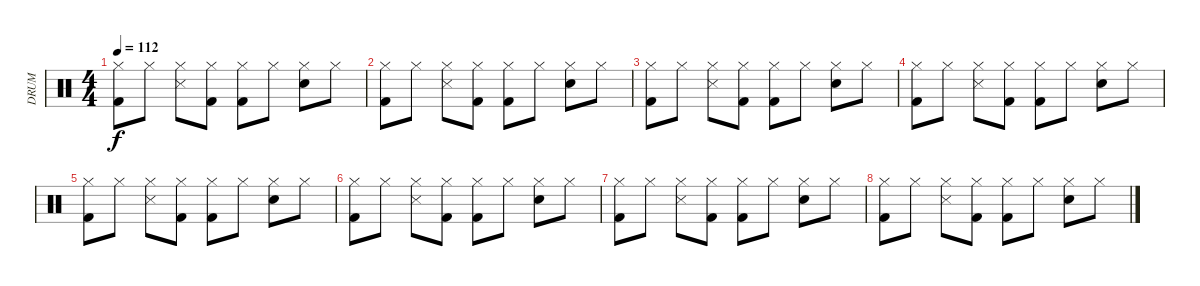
\track ("DRUM" "DRUM") {instrument percussion}
\staff {score}
\articulation defaults
\ts (4 4)
\tempo 112
\clef neutral
\ks c
("Kick (hit) 2" "Hi-Hat (closed)").8{dy f} "Hi-Hat (closed)".8 ("Snare (side stick) 3" "Hi-Hat (closed)").8 ("Kick (hit) 2" "Hi-Hat (closed)").8 ("Kick (hit) 2" "Hi-Hat (closed)").8 "Hi-Hat (closed)".8 ("Electric Snare (hit)" "Hi-Hat (closed)").8 "Hi-Hat (closed)".8 |
("Kick (hit) 2" "Hi-Hat (closed)").8 "Hi-Hat (closed)".8 ("Snare (side stick) 3" "Hi-Hat (closed)").8 ("Kick (hit) 2" "Hi-Hat (closed)").8 ("Kick (hit) 2" "Hi-Hat (closed)").8 "Hi-Hat (closed)".8 ("Snare (hit) 2" "Hi-Hat (closed)").8 "Hi-Hat (closed)".8 |
("Kick (hit) 2" "Hi-Hat (closed)").8 "Hi-Hat (closed)".8 ("Snare (side stick) 3" "Hi-Hat (closed)").8 ("Kick (hit) 2" "Hi-Hat (closed)").8 ("Kick (hit) 2" "Hi-Hat (closed)").8 "Hi-Hat (closed)".8 ("Electric Snare (hit)" "Hi-Hat (closed)").8 "Hi-Hat (closed)".8 |
("Kick (hit) 2" "Hi-Hat (closed)").8 "Hi-Hat (closed)".8 ("Snare (side stick) 3" "Hi-Hat (closed)").8 ("Kick (hit) 2" "Hi-Hat (closed)").8 ("Kick (hit) 2" "Hi-Hat (closed)").8 "Hi-Hat (closed)".8 ("Snare (hit) 2" "Hi-Hat (closed)").8 "Hi-Hat (closed)".8 |
("Kick (hit) 2" "Hi-Hat (closed)").8 "Hi-Hat (closed)".8 ("Snare (side stick) 3" "Hi-Hat (closed)").8 ("Kick (hit) 2" "Hi-Hat (closed)").8 ("Kick (hit) 2" "Hi-Hat (closed)").8 "Hi-Hat (closed)".8 ("Electric Snare (hit)" "Hi-Hat (closed)").8 "Hi-Hat (closed)".8 |
("Kick (hit) 2" "Hi-Hat (closed)").8 "Hi-Hat (closed)".8 ("Snare (side stick) 3" "Hi-Hat (closed)").8 ("Kick (hit) 2" "Hi-Hat (closed)").8 ("Kick (hit) 2" "Hi-Hat (closed)").8 "Hi-Hat (closed)".8 ("Snare (hit) 2" "Hi-Hat (closed)").8 "Hi-Hat (closed)".8 |
("Kick (hit) 2" "Hi-Hat (closed)").8 "Hi-Hat (closed)".8 ("Snare (side stick) 3" "Hi-Hat (closed)").8 ("Kick (hit) 2" "Hi-Hat (closed)").8 ("Kick (hit) 2" "Hi-Hat (closed)").8 "Hi-Hat (closed)".8 ("Electric Snare (hit)" "Hi-Hat (closed)").8 "Hi-Hat (closed)".8 |
("Kick (hit) 2" "Hi-Hat (closed)").8 "Hi-Hat (closed)".8 ("Snare (side stick) 3" "Hi-Hat (closed)").8 ("Kick (hit) 2" "Hi-Hat (closed)").8 ("Kick (hit) 2" "Hi-Hat (closed)").8 "Hi-Hat (closed)".8 ("Snare (hit) 2" "Hi-Hat (closed)").8 "Hi-Hat (closed)".8
